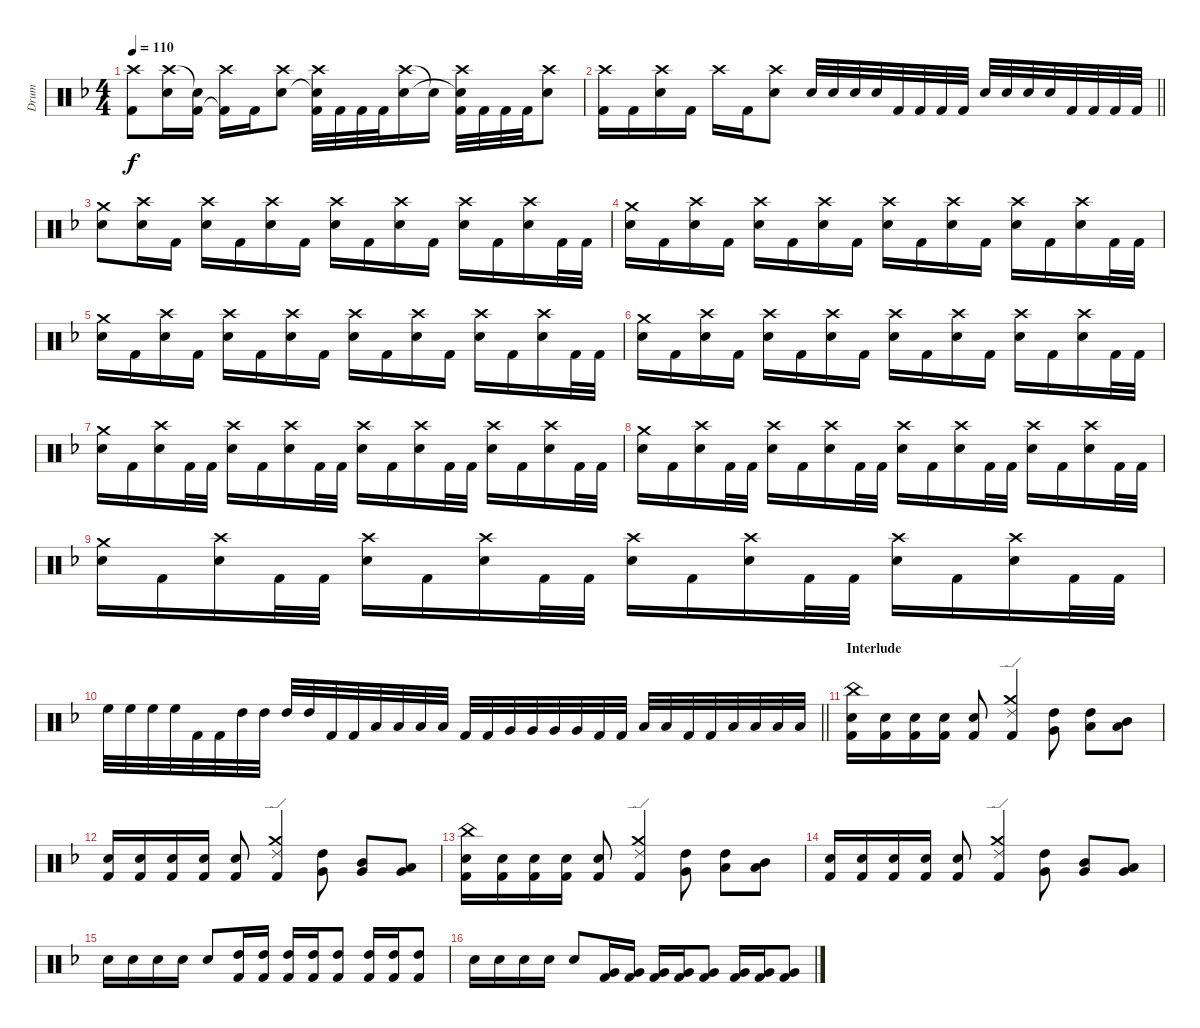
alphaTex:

\track ("Drum" "Drum") {instrument percussion}
\staff {score}
\articulation defaults
\ts (4 4)
\tempo 110
\clef neutral
\ks f
("Crash high (hit)" "Kick (hit) 2").8{dy f} ("Crash high (hit)" "Electric Snare (hit)").16 ("Snare (hit)"{t} "Kick (hit) 2").16 ("Crash high (hit)" "Kick (hit) 2"{t}).16 "Kick (hit) 2".16 ("Crash high (hit)" "Electric Snare (hit)").8 ("Crash high (hit)" "Snare (hit) 2"{t} "Kick (hit) 2").32 "Kick (hit) 2".32 "Kick (hit) 2".32 "Kick (hit) 2".32 ("Crash high (hit)" "Electric Snare (hit)").16 "Snare (hit) 2"{t}.16 ("Crash high (hit)" "Snare (hit) 2"{t} "Kick (hit) 2").32 "Kick (hit) 2".32 "Kick (hit) 2".32 "Kick (hit) 2".32 ("Crash high (hit)" "Electric Snare (hit)").8 |
\barLineRight lightlight
("Crash high (hit)" "Kick (hit) 2").16 "Kick (hit) 2".16 ("Crash high (hit)" "Snare (hit) 2").16 "Kick (hit) 2".16 "Crash high (hit)".16 "Kick (hit) 2".16 ("Crash high (hit)" "Snare (hit) 2").8 "Snare (hit) 2".32 "Snare (hit) 2".32 "Snare (hit) 2".32 "Snare (hit) 2".32 "Kick (hit) 2".32 "Kick (hit) 2".32 "Kick (hit) 2".32 "Kick (hit) 2".32 "Snare (hit) 2".32 "Snare (hit) 2".32 "Snare (hit) 2".32 "Snare (hit) 2".32 "Kick (hit) 2".32 "Kick (hit) 2".32 "Kick (hit) 2".32 "Kick (hit) 2".32 |
("Crash medium (hit)" "Snare (hit) 2").8 ("Crash high (hit)" "Snare (hit) 2").16 "Kick (hit) 2".16 ("Crash high (hit)" "Snare (hit) 2").16 "Kick (hit) 2".16 ("Crash high (hit)" "Snare (hit) 2").16 "Kick (hit) 2".16 ("Crash high (hit)" "Snare (hit) 2").16 "Kick (hit) 2".16 ("Crash high (hit)" "Snare (hit) 2").16 "Kick (hit) 2".16 ("Crash high (hit)" "Snare (hit) 2").16 "Kick (hit) 2".16 ("Crash high (hit)" "Snare (hit) 2").16 "Kick (hit) 2".32 "Kick (hit) 2".32 |
("Crash medium (hit)" "Snare (hit) 2").16 "Kick (hit) 2".16 ("Crash high (hit)" "Snare (hit) 2").16 "Kick (hit) 2".16 ("Crash high (hit)" "Snare (hit) 2").16 "Kick (hit) 2".16 ("Crash high (hit)" "Snare (hit) 2").16 "Kick (hit) 2".16 ("Crash high (hit)" "Snare (hit) 2").16 "Kick (hit) 2".16 ("Crash high (hit)" "Snare (hit) 2").16 "Kick (hit) 2".16 ("Crash high (hit)" "Snare (hit) 2").16 "Kick (hit) 2".16 ("Crash high (hit)" "Snare (hit) 2").16 "Kick (hit) 2".32 "Kick (hit) 2".32 |
("Crash medium (hit)" "Snare (hit) 2").16 "Kick (hit) 2".16 ("Crash high (hit)" "Snare (hit) 2").16 "Kick (hit) 2".16 ("Crash high (hit)" "Snare (hit) 2").16 "Kick (hit) 2".16 ("Crash high (hit)" "Snare (hit) 2").16 "Kick (hit) 2".16 ("Crash high (hit)" "Snare (hit) 2").16 "Kick (hit) 2".16 ("Crash high (hit)" "Snare (hit) 2").16 "Kick (hit) 2".16 ("Crash high (hit)" "Snare (hit) 2").16 "Kick (hit) 2".16 ("Crash high (hit)" "Snare (hit) 2").16 "Kick (hit) 2".32 "Kick (hit) 2".32 |
("Crash medium (hit)" "Snare (hit) 2").16 "Kick (hit) 2".16 ("Crash high (hit)" "Snare (hit) 2").16 "Kick (hit) 2".16 ("Crash high (hit)" "Snare (hit) 2").16 "Kick (hit) 2".16 ("Crash high (hit)" "Snare (hit) 2").16 "Kick (hit) 2".16 ("Crash high (hit)" "Snare (hit) 2").16 "Kick (hit) 2".16 ("Crash high (hit)" "Snare (hit) 2").16 "Kick (hit) 2".16 ("Crash high (hit)" "Snare (hit) 2").16 "Kick (hit) 2".16 ("Crash high (hit)" "Snare (hit) 2").16 "Kick (hit) 2".32 "Kick (hit) 2".32 |
("Crash medium (hit)" "Snare (hit) 2").16 "Kick (hit) 2".16 ("Crash high (hit)" "Snare (hit) 2").16 "Kick (hit) 2".32 "Kick (hit) 2".32 ("Crash high (hit)" "Snare (hit) 2").16 "Kick (hit) 2".16 ("Crash high (hit)" "Snare (hit) 2").16 "Kick (hit) 2".32 "Kick (hit) 2".32 ("Crash high (hit)" "Snare (hit) 2").16 "Kick (hit) 2".16 ("Crash high (hit)" "Snare (hit) 2").16 "Kick (hit) 2".32 "Kick (hit) 2".32 ("Crash high (hit)" "Snare (hit) 2").16 "Kick (hit) 2".16 ("Crash high (hit)" "Snare (hit) 2").16 "Kick (hit) 2".32 "Kick (hit) 2".32 |
("Crash medium (hit)" "Snare (hit) 2").16 "Kick (hit) 2".16 ("Crash high (hit)" "Snare (hit) 2").16 "Kick (hit) 2".32 "Kick (hit) 2".32 ("Crash high (hit)" "Snare (hit) 2").16 "Kick (hit) 2".16 ("Crash high (hit)" "Snare (hit) 2").16 "Kick (hit) 2".32 "Kick (hit) 2".32 ("Crash high (hit)" "Snare (hit) 2").16 "Kick (hit) 2".16 ("Crash high (hit)" "Snare (hit) 2").16 "Kick (hit) 2".32 "Kick (hit) 2".32 ("Crash high (hit)" "Snare (hit) 2").16 "Kick (hit) 2".16 ("Crash high (hit)" "Snare (hit) 2").16 "Kick (hit) 2".32 "Kick (hit) 2".32 |
("Crash medium (hit)" "Snare (hit) 2").16 "Kick (hit) 2".16 ("Crash high (hit)" "Snare (hit) 2").16 "Kick (hit) 2".32 "Kick (hit) 2".32 ("Crash high (hit)" "Snare (hit) 2").16 "Kick (hit) 2".16 ("Crash high (hit)" "Snare (hit) 2").16 "Kick (hit) 2".32 "Kick (hit) 2".32 ("Crash high (hit)" "Snare (hit) 2").16 "Kick (hit) 2".16 ("Crash high (hit)" "Snare (hit) 2").16 "Kick (hit) 2".32 "Kick (hit) 2".32 ("Crash high (hit)" "Snare (hit) 2").16 "Kick (hit) 2".16 ("Crash high (hit)" "Snare (hit) 2").16 "Kick (hit) 2".32 "Kick (hit) 2".32 |
\barLineRight lightlight "High Floor Tom (hit)".32 "High Floor Tom (hit)".32 "High Floor Tom (hit)".32 "High Floor Tom (hit)".32 "Kick (hit) 2".32 "Kick (hit) 2".32 "High Tom (hit)".32 "High Tom (hit)".32 "High Tom (hit)".32 "High Tom (hit)".32 "Kick (hit) 2".32 "Kick (hit) 2".32 "Low Tom (hit)".32 "Low Tom (hit)".32 "Low Tom (hit)".32 "Low Tom (hit)".32 "Kick (hit) 2".32 "Kick (hit) 2".32 "Very Low Tom (hit)".32 "Very Low Tom (hit)".32 "Very Low Tom (hit)".32 "Very Low Tom (hit)".32 "Kick (hit) 2".32 "Kick (hit) 2".32 "Low Floor Tom (hit)".32 "Low Floor Tom (hit)".32 "Kick (hit) 2".32 "Kick (hit) 2".32 "Low Floor Tom (hit)".32 "Low Floor Tom (hit)".32 "Low Floor Tom (hit)".32 "Low Floor Tom (hit)".32
|
\section ("" "Interlude")
("China (hit)" "Electric Snare (hit)" "Kick (hit) 2").16 ("Electric Snare (hit)" "Kick (hit) 2").16 ("Electric Snare (hit)" "Kick (hit) 2").16 ("Electric Snare (hit)" "Kick (hit) 2").16 ("Electric Snare (hit)" "Kick (hit) 2").8 ("Crash medium (hit)" "Ride (edge) 2" "Kick (hit) 2").4 ("High Tom (hit)" "Very Low Tom (hit)").8 ("High Tom (hit)" "Low Tom (hit)").8 ("Mid Tom (hit)" "Low Floor Tom (hit)").8 |
("Electric Snare (hit)" "Kick (hit) 2").16 ("Electric Snare (hit)" "Kick (hit) 2").16 ("Electric Snare (hit)" "Kick (hit) 2").16 ("Electric Snare (hit)" "Kick (hit) 2").16 ("Electric Snare (hit)" "Kick (hit) 2").8 ("Crash medium (hit)" "Ride (edge) 2" "Kick (hit) 2").4 ("High Tom (hit)" "Very Low Tom (hit)").8 ("Mid Tom (hit)" "Very Low Tom (hit)").8 ("Low Tom (hit)" "Very Low Tom (hit)").8 |
("China (hit)" "Electric Snare (hit)" "Kick (hit) 2").16 ("Electric Snare (hit)" "Kick (hit) 2").16 ("Electric Snare (hit)" "Kick (hit) 2").16 ("Electric Snare (hit)" "Kick (hit) 2").16 ("Electric Snare (hit)" "Kick (hit) 2").8 ("Crash medium (hit)" "Ride (edge) 2" "Kick (hit) 2").4 ("High Tom (hit)" "Very Low Tom (hit)").8 ("High Tom (hit)" "Low Tom (hit)").8 ("Mid Tom (hit)" "Low Floor Tom (hit)").8 |
("Electric Snare (hit)" "Kick (hit) 2").16 ("Electric Snare (hit)" "Kick (hit) 2").16 ("Electric Snare (hit)" "Kick (hit) 2").16 ("Electric Snare (hit)" "Kick (hit) 2").16 ("Electric Snare (hit)" "Kick (hit) 2").8 ("Crash medium (hit)" "Ride (edge) 2" "Kick (hit) 2").4 ("High Tom (hit)" "Very Low Tom (hit)").8 ("Mid Tom (hit)" "Very Low Tom (hit)").8 ("Low Tom (hit)" "Very Low Tom (hit)").8 |
"Electric Snare (hit)".16 "Electric Snare (hit)".16 "Electric Snare (hit)".16 "Electric Snare (hit)".16 "Electric Snare (hit)".8 ("High Tom (hit)" "Kick (hit) 2").16 ("High Tom (hit)" "Kick (hit) 2").16 ("High Tom (hit)" "Kick (hit) 2").16 ("High Tom (hit)" "Kick (hit) 2").16 ("High Tom (hit)" "Kick (hit) 2").8 ("High Tom (hit)" "Kick (hit) 2").16 ("High Tom (hit)" "Kick (hit) 2").16 ("High Tom (hit)" "Kick (hit) 2").8 |
"Snare (hit) 2".16 "Snare (hit) 2".16 "Snare (hit) 2".16 "Snare (hit) 2".16 "Snare (hit) 2".8 ("Very Low Tom (hit)" "Kick (hit) 2").16 ("Very Low Tom (hit)" "Kick (hit) 2").16 ("Very Low Tom (hit)" "Kick (hit) 2").16 ("Very Low Tom (hit)" "Kick (hit) 2").16 ("Very Low Tom (hit)" "Kick (hit) 2").8 ("Very Low Tom (hit)" "Kick (hit) 2").16 ("Very Low Tom (hit)" "Kick (hit) 2").16 ("Very Low Tom (hit)" "Kick (hit) 2").8
